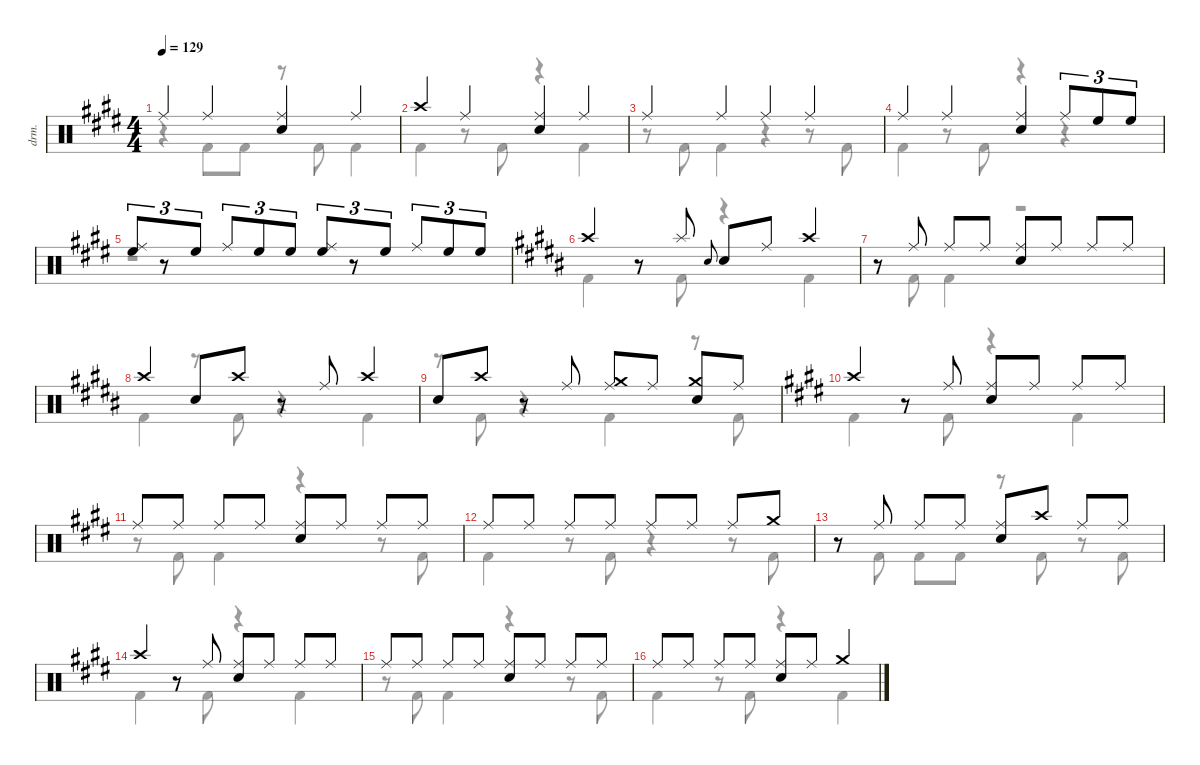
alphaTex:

\defaultSystemsLayout 4
\hideDynamics
\bracketExtendMode nobrackets
\track ("Drums" "drm.") {instrument percussion}
\staff {score}
\articulation defaults
\voice
\ts (4 4)
\tempo 129
\clef neutral
\ks e "Ride (middle)"{acc forcenatural}.4{dy mf} "Ride (middle)"{acc forcenatural}.4
("Ride (middle)"{acc forcenatural} "Snare (hit) 2"{acc forcenatural}).4 "Ride (middle)"{acc forcenatural}.4 |
"Crash high (hit)"{acc forcenatural}.4 "Ride (middle)"{acc forcenatural}.4 ("Ride (middle)"{acc forcenatural} "Snare (hit) 2"{acc forcenatural}).4 "Ride (middle)"{acc forcenatural}.4 |
"Ride (middle)"{acc forcenatural}.4 "Ride (middle)"{acc forcenatural}.4 "Ride (middle)"{acc forcenatural}.4 "Ride (middle)"{acc forcenatural}.4 |
"Ride (middle)"{acc forcenatural}.4 "Ride (middle)"{acc forcenatural}.4 ("Ride (middle)"{acc forcenatural} "Snare (hit) 2"{acc forcenatural}).4 "Ride (middle)"{acc forcenatural}.8{tu (3 2)} "High Floor Tom (hit)"{acc forcenatural}.8{tu (3 2)} "High Floor Tom (hit)"{acc forcenatural}.8{tu (3 2)} |
("High Floor Tom (hit)"{acc forcenatural} "Ride (middle)"{acc forcenatural}).8{tu (3 2)} r.8{tu (3 2)} "High Floor Tom (hit)"{acc forcenatural}.8{tu (3 2)} "Ride (middle)"{acc forcenatural}.8{tu (3 2)} "High Floor Tom (hit)"{acc forcenatural}.8{tu (3 2)} "High Floor Tom (hit)"{acc forcenatural}.8{tu (3 2)} ("High Floor Tom (hit)"{acc forcenatural} "Ride (middle)"{acc forcenatural}).8{tu (3 2)} r.8{tu (3 2)} "High Floor Tom (hit)"{acc forcenatural}.8{tu (3 2)} "Ride (middle)"{acc forcenatural}.8{tu (3 2)} "High Floor Tom (hit)"{acc forcenatural}.8{tu (3 2)} "High Floor Tom (hit)"{acc forcenatural}.8{tu (3 2)} |
\ks b "Crash high (hit)"{acc forcenatural}.4
r.8 "Splash (hit)"{acc forcenatural}.8 "Snare (hit) 2"{acc forcenatural}.8{gr onbeat} "Snare (hit) 2"{acc forcenatural}.8 "Ride (middle)"{acc forcenatural}.8 "Crash high (hit)"{acc forcenatural}.4 |
r.8 "Ride (middle)"{acc forcenatural}.8 "Ride (middle)"{acc forcenatural}.8 "Ride (middle)"{acc forcenatural}.8 ("Ride (middle)"{acc forcenatural} "Snare (hit) 2"{acc forcenatural}).8 "Ride (middle)"{acc forcenatural}.8 "Ride (middle)"{acc forcenatural}.8 "Ride (middle)"{acc forcenatural}.8 |
"Crash high (hit)"{acc forcenatural}.4 "Snare (hit) 2"{acc forcenatural}.8 "Crash high (hit)"{acc forcenatural}.8 r.8 "Ride (middle)"{acc forcenatural}.8 "Crash high (hit)"{acc forcenatural}.4 |
"Snare (hit) 2"{acc forcenatural}.8 "Crash high (hit)"{acc forcenatural}.8 r.8 "Ride (middle)"{acc forcenatural}.8 ("Ride (middle)"{acc forcenatural} "Crash medium (hit)"{acc forcenatural}).8 "Ride (middle)"{acc forcenatural}.8 ("Crash medium (hit)"{acc forcenatural} "Snare (hit) 2"{acc forcenatural}).8 "Ride (middle)"{acc forcenatural}.8 |
\ks e "Crash high (hit)"{acc forcenatural}.4
r.8 "Ride (middle)"{acc forcenatural}.8 ("Ride (middle)"{acc forcenatural} "Snare (hit) 2"{acc forcenatural}).8 "Ride (middle)"{acc forcenatural}.8 "Ride (middle)"{acc forcenatural}.8 "Ride (middle)"{acc forcenatural}.8 |
"Ride (middle)"{acc forcenatural}.8 "Ride (middle)"{acc forcenatural}.8 "Ride (middle)"{acc forcenatural}.8 "Ride (middle)"{acc forcenatural}.8 ("Ride (middle)"{acc forcenatural} "Snare (hit) 2"{acc forcenatural}).8 "Ride (middle)"{acc forcenatural}.8 "Ride (middle)"{acc forcenatural}.8 "Ride (middle)"{acc forcenatural}.8 |
"Ride (middle)"{acc forcenatural}.8 "Ride (middle)"{acc forcenatural}.8 "Ride (middle)"{acc forcenatural}.8 "Ride (middle)"{acc forcenatural}.8 "Ride (middle)"{acc forcenatural}.8 "Ride (middle)"{acc forcenatural}.8 "Ride (middle)"{acc forcenatural}.8 "Crash medium (hit)"{acc forcenatural}.8 |
r.8 "Ride (middle)"{acc forcenatural}.8 "Ride (middle)"{acc forcenatural}.8 "Ride (middle)"{acc forcenatural}.8 ("Ride (middle)"{acc forcenatural} "Snare (hit) 2"{acc forcenatural}).8 "Crash high (hit)"{acc forcenatural}.8 "Ride (middle)"{acc forcenatural}.8 "Ride (middle)"{acc forcenatural}.8 |
"Crash high (hit)"{acc forcenatural}.4 r.8 "Ride (middle)"{acc forcenatural}.8 ("Ride (middle)"{acc forcenatural} "Snare (hit) 2"{acc forcenatural}).8 "Ride (middle)"{acc forcenatural}.8 "Ride (middle)"{acc forcenatural}.8 "Ride (middle)"{acc forcenatural}.8 |
"Ride (middle)"{acc forcenatural}.8 "Ride (middle)"{acc forcenatural}.8 "Ride (middle)"{acc forcenatural}.8 "Ride (middle)"{acc forcenatural}.8 ("Ride (middle)"{acc forcenatural} "Snare (hit) 2"{acc forcenatural}).8 "Ride (middle)"{acc forcenatural}.8 "Ride (middle)"{acc forcenatural}.8 "Ride (middle)"{acc forcenatural}.8 |
"Ride (middle)"{acc forcenatural}.8 "Ride (middle)"{acc forcenatural}.8 "Ride (middle)"{acc forcenatural}.8 "Ride (middle)"{acc forcenatural}.8 ("Ride (middle)"{acc forcenatural} "Snare (hit) 2"{acc forcenatural}).8 "Ride (middle)"{acc forcenatural}.8 "Crash medium (hit)"{acc forcenatural}.4
\voice
\clef neutral
\ottava regular
\simile none
\ks e
r.4{dy mf} "Kick (hit) 2"{acc forcenatural}.8 "Kick (hit) 2"{acc forcenatural}.8 r.8 "Kick (hit) 2"{acc forcenatural}.8 "Kick (hit) 2"{acc forcenatural}.4 |
"Kick (hit) 2"{acc forcenatural}.4 r.8 "Kick (hit) 2"{acc forcenatural}.8 r.4 "Kick (hit) 2"{acc forcenatural}.4 |
r.8 "Kick (hit) 2"{acc forcenatural}.8 "Kick (hit) 2"{acc forcenatural}.4 r.4 r.8 "Kick (hit) 2"{acc forcenatural}.8 |
"Kick (hit) 2"{acc forcenatural}.4 r.8 "Kick (hit) 2"{acc forcenatural}.8 r.4 r.4 |
r.1 |
\ks b "Kick (hit) 2"{acc forcenatural}.4
r.8 "Kick (hit) 2"{acc forcenatural}.8 r.4 "Kick (hit) 2"{acc forcenatural}.4 |
r.8 "Kick (hit) 2"{acc forcenatural}.8 "Kick (hit) 2"{acc forcenatural}.4 r.2 |
"Kick (hit) 2"{acc forcenatural}.4 r.8 "Kick (hit) 2"{acc forcenatural}.8 r.4 "Kick (hit) 2"{acc forcenatural}.4 |
r.8 "Kick (hit) 2"{acc forcenatural}.8 r.4 "Kick (hit) 2"{acc forcenatural}.4 r.8 "Kick (hit) 2"{acc forcenatural}.8 |
\ks e "Kick (hit) 2"{acc forcenatural}.4
r.8 "Kick (hit) 2"{acc forcenatural}.8 r.4 "Kick (hit) 2"{acc forcenatural}.4 |
r.8 "Kick (hit) 2"{acc forcenatural}.8 "Kick (hit) 2"{acc forcenatural}.4 r.4 r.8 "Kick (hit) 2"{acc forcenatural}.8 |
"Kick (hit) 2"{acc forcenatural}.4 r.8 "Kick (hit) 2"{acc forcenatural}.8 r.4 r.8 "Kick (hit) 2"{acc forcenatural}.8 |
r.8 "Kick (hit) 2"{acc forcenatural}.8 "Kick (hit) 2"{acc forcenatural}.8 "Kick (hit) 2"{acc forcenatural}.8 r.8 "Kick (hit) 2"{acc forcenatural}.8 r.8 "Kick (hit) 2"{acc forcenatural}.8 |
"Kick (hit) 2"{acc forcenatural}.4 r.8 "Kick (hit) 2"{acc forcenatural}.8 r.4 "Kick (hit) 2"{acc forcenatural}.4 |
r.8 "Kick (hit) 2"{acc forcenatural}.8 "Kick (hit) 2"{acc forcenatural}.4 r.4 r.8 "Kick (hit) 2"{acc forcenatural}.8 |
"Kick (hit) 2"{acc forcenatural}.4 r.8 "Kick (hit) 2"{acc forcenatural}.8 r.4 "Kick (hit) 2"{acc forcenatural}.4
